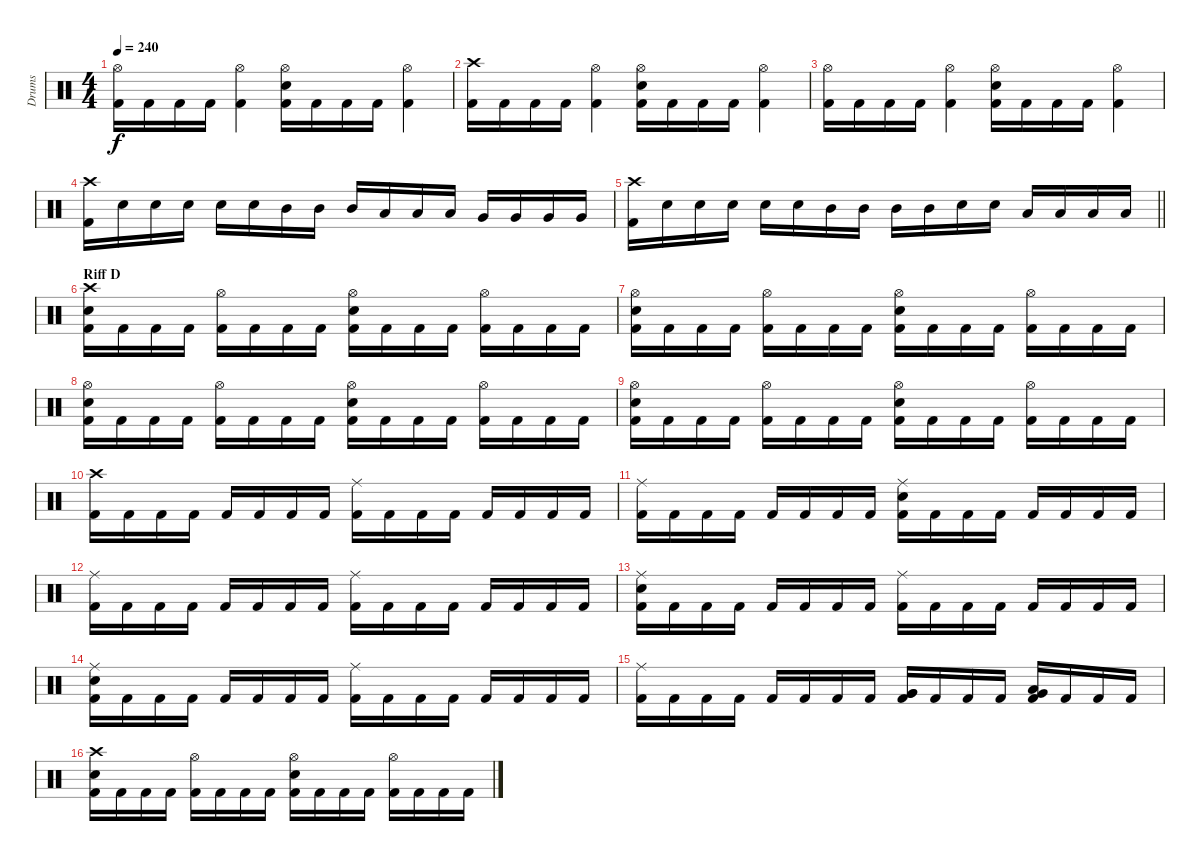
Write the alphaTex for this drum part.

\track ("Drums" "Drums") {instrument percussion}
\staff {score}
\articulation defaults
\ts (4 4)
\tempo 240
\clef neutral
\ks c
("Hi-Hat (open)" "Kick (hit) 2").16{dy f} "Kick (hit) 2".16 "Kick (hit) 2".16 "Kick (hit) 2".16 ("Hi-Hat (open)" "Kick (hit) 2").4 ("Hi-Hat (open)" "Electric Snare (hit)" "Kick (hit) 2").16 "Kick (hit) 2".16 "Kick (hit) 2".16 "Kick (hit) 2".16 ("Hi-Hat (open)" "Kick (hit) 2").4 |
("Crash high (hit)" "Kick (hit) 2").16 "Kick (hit) 2".16 "Kick (hit) 2".16 "Kick (hit) 2".16 ("Hi-Hat (open)" "Kick (hit) 2").4 ("Hi-Hat (open)" "Electric Snare (hit)" "Kick (hit) 2").16 "Kick (hit) 2".16 "Kick (hit) 2".16 "Kick (hit) 2".16 ("Hi-Hat (open)" "Kick (hit) 2").4 |
("Hi-Hat (open)" "Kick (hit) 2").16 "Kick (hit) 2".16 "Kick (hit) 2".16 "Kick (hit) 2".16 ("Hi-Hat (open)" "Kick (hit) 2").4 ("Hi-Hat (open)" "Electric Snare (hit)" "Kick (hit) 2").16 "Kick (hit) 2".16 "Kick (hit) 2".16 "Kick (hit) 2".16 ("Hi-Hat (open)" "Kick (hit) 2").4 |
("Crash high (hit)" "Kick (hit) 2").16 "Electric Snare (hit)".16 "Electric Snare (hit)".16 "Electric Snare (hit)".16 "Electric Snare (hit)".16 "Electric Snare (hit)".16 "Mid Tom (hit)".16 "Mid Tom (hit)".16 "Mid Tom (hit)".16 "Low Tom (hit)".16 "Low Tom (hit)".16 "Low Tom (hit)".16 "Very Low Tom (hit)".16 "Very Low Tom (hit)".16 "Very Low Tom (hit)".16 "Very Low Tom (hit)".16 |
\barLineRight lightlight
("Crash high (hit)" "Kick (hit) 2").16 "Electric Snare (hit)".16 "Electric Snare (hit)".16 "Electric Snare (hit)".16 "Electric Snare (hit)".16 "Electric Snare (hit)".16 "Mid Tom (hit)".16 "Mid Tom (hit)".16 "Mid Tom (hit)".16 "Mid Tom (hit)".16 "Electric Snare (hit)".16 "Electric Snare (hit)".16 "Low Tom (hit)".16 "Low Tom (hit)".16 "Low Tom (hit)".16 "Low Tom (hit)".16 |
\section ("" "Riff D")
("Crash high (hit)" "Electric Snare (hit)" "Kick (hit) 2").16 "Kick (hit) 2".16 "Kick (hit) 2".16 "Kick (hit) 2".16 ("Hi-Hat (open)" "Kick (hit) 2").16 "Kick (hit) 2".16 "Kick (hit) 2".16 "Kick (hit) 2".16 ("Hi-Hat (open)" "Electric Snare (hit)" "Kick (hit) 2").16 "Kick (hit) 2".16 "Kick (hit) 2".16 "Kick (hit) 2".16 ("Hi-Hat (open)" "Kick (hit) 2").16 "Kick (hit) 2".16 "Kick (hit) 2".16 "Kick (hit) 2".16 |
("Hi-Hat (open)" "Electric Snare (hit)" "Kick (hit) 2").16 "Kick (hit) 2".16 "Kick (hit) 2".16 "Kick (hit) 2".16 ("Hi-Hat (open)" "Kick (hit) 2").16 "Kick (hit) 2".16 "Kick (hit) 2".16 "Kick (hit) 2".16 ("Hi-Hat (open)" "Electric Snare (hit)" "Kick (hit) 2").16 "Kick (hit) 2".16 "Kick (hit) 2".16 "Kick (hit) 2".16 ("Hi-Hat (open)" "Kick (hit) 2").16 "Kick (hit) 2".16 "Kick (hit) 2".16 "Kick (hit) 2".16 |
("Hi-Hat (open)" "Electric Snare (hit)" "Kick (hit) 2").16 "Kick (hit) 2".16 "Kick (hit) 2".16 "Kick (hit) 2".16 ("Hi-Hat (open)" "Kick (hit) 2").16 "Kick (hit) 2".16 "Kick (hit) 2".16 "Kick (hit) 2".16 ("Hi-Hat (open)" "Electric Snare (hit)" "Kick (hit) 2").16 "Kick (hit) 2".16 "Kick (hit) 2".16 "Kick (hit) 2".16 ("Hi-Hat (open)" "Kick (hit) 2").16 "Kick (hit) 2".16 "Kick (hit) 2".16 "Kick (hit) 2".16 |
("Hi-Hat (open)" "Electric Snare (hit)" "Kick (hit) 2").16 "Kick (hit) 2".16 "Kick (hit) 2".16 "Kick (hit) 2".16 ("Hi-Hat (open)" "Kick (hit) 2").16 "Kick (hit) 2".16 "Kick (hit) 2".16 "Kick (hit) 2".16 ("Hi-Hat (open)" "Electric Snare (hit)" "Kick (hit) 2").16 "Kick (hit) 2".16 "Kick (hit) 2".16 "Kick (hit) 2".16 ("Hi-Hat (open)" "Kick (hit) 2").16 "Kick (hit) 2".16 "Kick (hit) 2".16 "Kick (hit) 2".16 |
("Crash high (hit)" "Kick (hit) 2").16 "Kick (hit) 2".16 "Kick (hit) 2".16 "Kick (hit) 2".16 "Kick (hit) 2".16 "Kick (hit) 2".16 "Kick (hit) 2".16 "Kick (hit) 2".16 ("Ride (middle)" "Kick (hit) 2").16 "Kick (hit) 2".16 "Kick (hit) 2".16 "Kick (hit) 2".16 "Kick (hit) 2".16 "Kick (hit) 2".16 "Kick (hit) 2".16 "Kick (hit) 2".16 |
("Ride (middle)" "Kick (hit) 2").16 "Kick (hit) 2".16 "Kick (hit) 2".16 "Kick (hit) 2".16 "Kick (hit) 2".16 "Kick (hit) 2".16 "Kick (hit) 2".16 "Kick (hit) 2".16 ("Ride (middle)" "Electric Snare (hit)" "Kick (hit) 2").16 "Kick (hit) 2".16 "Kick (hit) 2".16 "Kick (hit) 2".16 "Kick (hit) 2".16 "Kick (hit) 2".16 "Kick (hit) 2".16 "Kick (hit) 2".16 |
("Ride (middle)" "Kick (hit) 2").16 "Kick (hit) 2".16 "Kick (hit) 2".16 "Kick (hit) 2".16 "Kick (hit) 2".16 "Kick (hit) 2".16 "Kick (hit) 2".16 "Kick (hit) 2".16 ("Ride (middle)" "Kick (hit) 2").16 "Kick (hit) 2".16 "Kick (hit) 2".16 "Kick (hit) 2".16 "Kick (hit) 2".16 "Kick (hit) 2".16 "Kick (hit) 2".16 "Kick (hit) 2".16 |
("Ride (middle)" "Electric Snare (hit)" "Kick (hit) 2").16 "Kick (hit) 2".16 "Kick (hit) 2".16 "Kick (hit) 2".16 "Kick (hit) 2".16 "Kick (hit) 2".16 "Kick (hit) 2".16 "Kick (hit) 2".16 ("Ride (middle)" "Kick (hit) 2").16 "Kick (hit) 2".16 "Kick (hit) 2".16 "Kick (hit) 2".16 "Kick (hit) 2".16 "Kick (hit) 2".16 "Kick (hit) 2".16 "Kick (hit) 2".16 |
("Ride (middle)" "Electric Snare (hit)" "Kick (hit) 2").16 "Kick (hit) 2".16 "Kick (hit) 2".16 "Kick (hit) 2".16 "Kick (hit) 2".16 "Kick (hit) 2".16 "Kick (hit) 2".16 "Kick (hit) 2".16 ("Ride (middle)" "Kick (hit) 2").16 "Kick (hit) 2".16 "Kick (hit) 2".16 "Kick (hit) 2".16 "Kick (hit) 2".16 "Kick (hit) 2".16 "Kick (hit) 2".16 "Kick (hit) 2".16 |
("Ride (middle)" "Kick (hit) 2").16 "Kick (hit) 2".16 "Kick (hit) 2".16 "Kick (hit) 2".16 "Kick (hit) 2".16 "Kick (hit) 2".16 "Kick (hit) 2".16 "Kick (hit) 2".16 ("Very Low Tom (hit)" "Very Low Tom (hit)" "Kick (hit) 2").16 "Kick (hit) 2".16 "Kick (hit) 2".16 "Kick (hit) 2".16 ("Very Low Tom (hit)" "Low Floor Tom (hit)" "Kick (hit) 2").16 "Kick (hit) 2".16 "Kick (hit) 2".16 "Kick (hit) 2".16 |
("Crash high (hit)" "Electric Snare (hit)" "Kick (hit) 2").16 "Kick (hit) 2".16 "Kick (hit) 2".16 "Kick (hit) 2".16 ("Hi-Hat (open)" "Kick (hit) 2").16 "Kick (hit) 2".16 "Kick (hit) 2".16 "Kick (hit) 2".16 ("Hi-Hat (open)" "Electric Snare (hit)" "Kick (hit) 2").16 "Kick (hit) 2".16 "Kick (hit) 2".16 "Kick (hit) 2".16 ("Hi-Hat (open)" "Kick (hit) 2").16 "Kick (hit) 2".16 "Kick (hit) 2".16 "Kick (hit) 2".16
